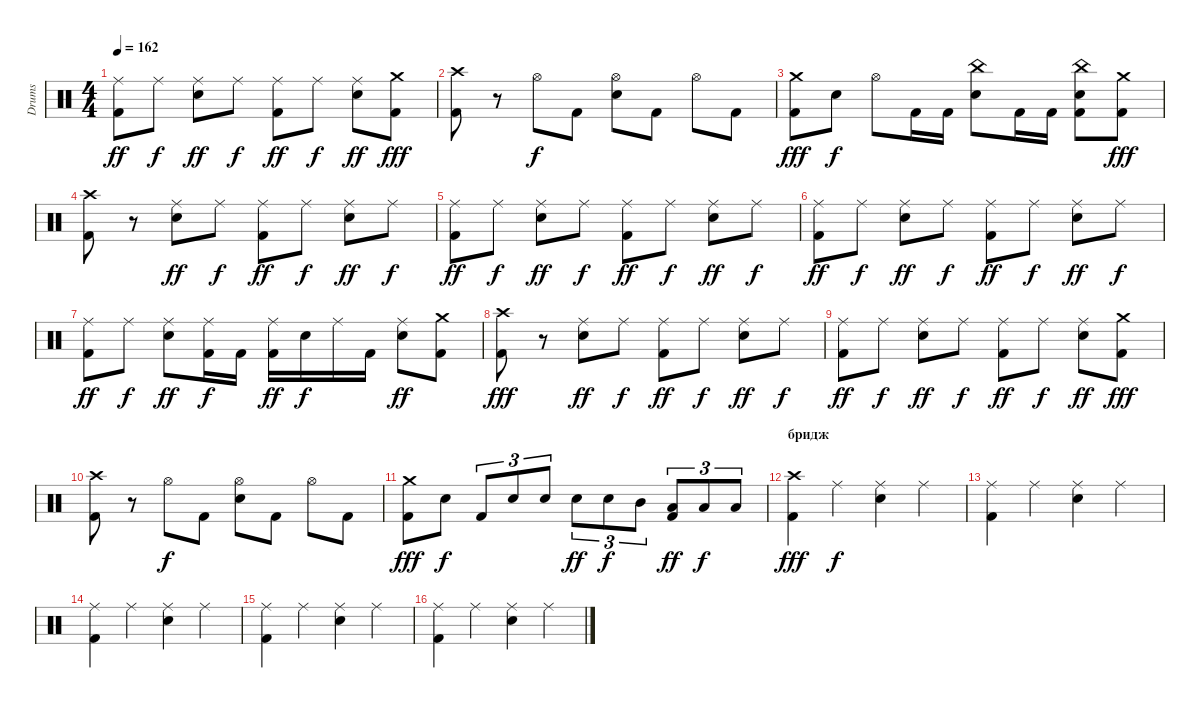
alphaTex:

\track ("Drums" "Drums") {instrument percussion}
\staff {score}
\articulation defaults
\ts (4 4)
\tempo 162
\clef neutral
\ks c
("Ride (middle)" "Kick (hit) 2").8{dy ff} "Ride (middle)".8{dy f} ("Ride (middle)" "Snare (hit) 2").8{dy ff} "Ride (middle)".8{dy f} ("Ride (middle)" "Kick (hit) 2").8{dy ff} "Ride (middle)".8{dy f} ("Ride (middle)" "Snare (hit) 2").8{dy ff} ("Crash medium (hit)" "Kick (hit) 2").8{dy fff} |
("Crash high (hit)" "Kick (hit) 2").8 r.8 "Hi-Hat (open)".8{dy f} "Kick (hit) 2".8 ("Hi-Hat (open)" "Snare (hit) 2").8 "Kick (hit) 2".8 "Hi-Hat (open)".8 "Kick (hit) 2".8 |
("Crash medium (hit)" "Kick (hit) 2").8{dy fff} "Snare (hit) 2".8{dy f} "Hi-Hat (open)".8 "Kick (hit) 2".16 "Kick (hit) 2".16 ("China (hit)" "Snare (hit) 2").8 "Kick (hit) 2".16 "Kick (hit) 2".16 ("China (hit)" "Snare (hit) 2" "Kick (hit) 2").8 ("Crash medium (hit)" "Kick (hit) 2").8{dy fff} |
("Crash high (hit)" "Kick (hit) 2").8 r.8 ("Ride (middle)" "Snare (hit) 2").8{dy ff} "Ride (middle)".8{dy f} ("Ride (middle)" "Kick (hit) 2").8{dy ff} "Ride (middle)".8{dy f} ("Ride (middle)" "Snare (hit) 2").8{dy ff} "Ride (middle)".8{dy f} |
("Ride (middle)" "Kick (hit) 2").8{dy ff} "Ride (middle)".8{dy f} ("Ride (middle)" "Snare (hit) 2").8{dy ff} "Ride (middle)".8{dy f} ("Ride (middle)" "Kick (hit) 2").8{dy ff} "Ride (middle)".8{dy f} ("Ride (middle)" "Snare (hit) 2").8{dy ff} "Ride (middle)".8{dy f} |
("Ride (middle)" "Kick (hit) 2").8{dy ff} "Ride (middle)".8{dy f} ("Ride (middle)" "Snare (hit) 2").8{dy ff} "Ride (middle)".8{dy f} ("Ride (middle)" "Kick (hit) 2").8{dy ff} "Ride (middle)".8{dy f} ("Ride (middle)" "Snare (hit) 2").8{dy ff} "Ride (middle)".8{dy f} |
("Ride (middle)" "Kick (hit) 2").8{dy ff} "Ride (middle)".8{dy f} ("Ride (middle)" "Snare (hit) 2").8{dy ff} ("Ride (middle)" "Kick (hit) 2").16{dy f} "Kick (hit) 2".16 ("Ride (middle)" "Kick (hit) 2").16{dy ff} "Snare (hit) 2".16{dy f} "Ride (middle)".16 "Kick (hit) 2".16 ("Ride (middle)" "Snare (hit) 2").8{dy ff} ("Crash medium (hit)" "Kick (hit) 2").8 |
("Crash high (hit)" "Kick (hit) 2").8{dy fff} r.8 ("Ride (middle)" "Snare (hit) 2").8{dy ff} "Ride (middle)".8{dy f} ("Ride (middle)" "Kick (hit) 2").8{dy ff} "Ride (middle)".8{dy f} ("Ride (middle)" "Snare (hit) 2").8{dy ff} "Ride (middle)".8{dy f} |
("Ride (middle)" "Kick (hit) 2").8{dy ff} "Ride (middle)".8{dy f} ("Ride (middle)" "Snare (hit) 2").8{dy ff} "Ride (middle)".8{dy f} ("Ride (middle)" "Kick (hit) 2").8{dy ff} "Ride (middle)".8{dy f} ("Ride (middle)" "Snare (hit) 2").8{dy ff} ("Crash medium (hit)" "Kick (hit) 2").8{dy fff} |
("Crash high (hit)" "Kick (hit) 2").8 r.8 "Hi-Hat (open)".8{dy f} "Kick (hit) 2".8 ("Hi-Hat (open)" "Snare (hit) 2").8 "Kick (hit) 2".8 "Hi-Hat (open)".8 "Kick (hit) 2".8 |
("Crash medium (hit)" "Kick (hit) 2").8{dy fff} "Snare (hit) 2".8{dy f} "Kick (hit) 2".8{tu (3 2)} "Snare (hit) 2".8{tu (3 2)} "Snare (hit) 2".8{tu (3 2)} "Snare (hit) 2".8{tu (3 2) dy ff} "Snare (hit) 2".8{tu (3 2) dy f} "Mid Tom (hit)".8{tu (3 2)} ("Low Tom (hit)" "Kick (hit) 2").8{tu (3 2) dy ff} "Low Tom (hit)".8{tu (3 2) dy f} "Low Tom (hit)".8{tu (3 2)} |
\section ("" "бридж")
("Crash high (hit)" "Kick (hit) 2").4{dy fff} "Ride (middle)".4{dy f} ("Ride (middle)" "Snare (hit) 2").4 "Ride (middle)".4 |
("Ride (middle)" "Kick (hit) 2").4 "Ride (middle)".4 ("Ride (middle)" "Snare (hit) 2").4 "Ride (middle)".4 |
("Ride (middle)" "Kick (hit) 2").4 "Ride (middle)".4 ("Ride (middle)" "Snare (hit) 2").4 "Ride (middle)".4 |
("Ride (middle)" "Kick (hit) 2").4 "Ride (middle)".4 ("Ride (middle)" "Snare (hit) 2").4 "Ride (middle)".4 |
("Ride (middle)" "Kick (hit) 2").4 "Ride (middle)".4 ("Ride (middle)" "Snare (hit) 2").4 "Ride (middle)".4
